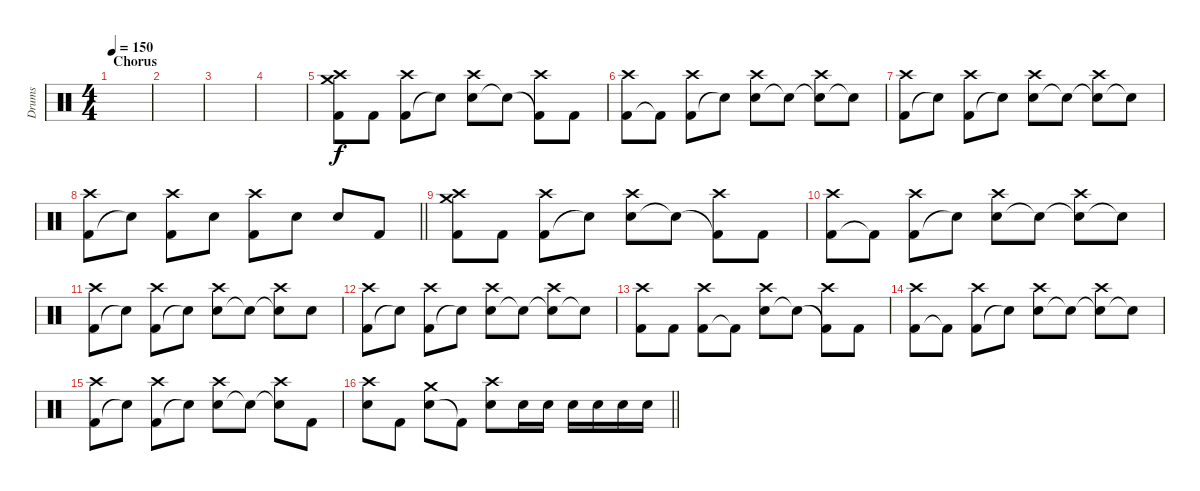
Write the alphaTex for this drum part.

\track ("Drums" "Drums") {instrument percussion}
\staff {score}
\articulation defaults
\ts (4 4)
\section ("" "Chorus")
\tempo 150
\clef neutral
\ks c
|
|
|
|
("Kick (hit) 2" "Crash medium (hit)" "Crash high (hit)").8 "Kick (hit) 2".8 ("Kick (hit) 2" "Crash high (hit)").8 "Snare (hit)"{t}.8 ("Electric Snare (hit)" "Crash high (hit)").8 "Snare (hit)"{t}.8 ("Kick (hit) 2"{t} "Crash high (hit)").8 "Kick (hit) 2".8 |
("Kick (hit) 2" "Crash high (hit)").8 "Kick (hit) 2"{t}.8 ("Kick (hit) 2" "Crash high (hit)").8 "Electric Snare (hit)"{t}.8 ("Electric Snare (hit)" "Crash high (hit)").8 "Snare (hit)"{t}.8 ("Snare (hit)"{t} "Crash high (hit)").8 "Snare (hit)"{t}.8 |
("Kick (hit) 2" "Crash high (hit)").8 "Snare (hit)"{t}.8 ("Kick (hit) 2" "Crash high (hit)").8 "Snare (hit)"{t}.8 ("Electric Snare (hit)" "Crash high (hit)").8 "Snare (hit)"{t}.8 ("Snare (hit)"{t} "Crash high (hit)").8 "Electric Snare (hit)"{t}.8 |
\barLineRight lightlight
("Kick (hit) 2" "Crash high (hit)").8 "Snare (hit)"{t}.8 ("Kick (hit) 2" "Crash high (hit)").8 "Electric Snare (hit)".8 ("Kick (hit) 2" "Crash high (hit)").8 "Electric Snare (hit)".8 "Electric Snare (hit)".8 "Kick (hit) 2".8 |
("Kick (hit) 2" "Crash medium (hit)" "Crash high (hit)").8 "Kick (hit) 2".8 ("Kick (hit) 2" "Crash high (hit)").8 "Snare (hit)"{t}.8 ("Electric Snare (hit)" "Crash high (hit)").8 "Snare (hit)"{t}.8 ("Kick (hit) 2"{t} "Crash high (hit)").8 "Kick (hit) 2".8 |
("Kick (hit) 2" "Crash high (hit)").8 "Kick (hit) 2"{t}.8 ("Kick (hit) 2" "Crash high (hit)").8 "Electric Snare (hit)"{t}.8 ("Electric Snare (hit)" "Crash high (hit)").8 "Snare (hit)"{t}.8 ("Snare (hit)"{t} "Crash high (hit)").8 "Snare (hit)"{t}.8 |
("Kick (hit) 2" "Crash high (hit)").8 "Snare (hit)"{t}.8 ("Kick (hit) 2" "Crash high (hit)").8 "Snare (hit)"{t}.8 ("Electric Snare (hit)" "Crash high (hit)").8 "Snare (hit)"{t}.8 ("Snare (hit)"{t} "Crash high (hit)").8 "Electric Snare (hit)".8 |
("Kick (hit) 2" "Crash high (hit)").8 "Snare (hit)"{t}.8 ("Kick (hit) 2" "Crash high (hit)").8 "Snare (hit)"{t}.8 ("Electric Snare (hit)" "Crash high (hit)").8 "Snare (hit)"{t}.8 ("Snare (hit)"{t} "Crash high (hit)").8 "Snare (hit)"{t}.8 |
("Kick (hit) 2" "Crash high (hit)").8 "Kick (hit) 2".8 ("Kick (hit) 2" "Crash high (hit)").8 "Kick (hit) 2"{t}.8 ("Electric Snare (hit)" "Crash high (hit)").8 "Snare (hit)"{t}.8 ("Kick (hit) 2"{t} "Crash high (hit)").8 "Kick (hit) 2".8 |
("Kick (hit) 2" "Crash high (hit)").8 "Kick (hit) 2"{t}.8 ("Kick (hit) 2" "Crash high (hit)").8 "Electric Snare (hit)"{t}.8 ("Electric Snare (hit)" "Crash high (hit)").8 "Snare (hit)"{t}.8 ("Snare (hit)"{t} "Crash high (hit)").8 "Snare (hit)"{t}.8 |
("Kick (hit) 2" "Crash high (hit)").8 "Snare (hit)"{t}.8 ("Kick (hit) 2" "Crash high (hit)").8 "Snare (hit)"{t}.8 ("Electric Snare (hit)" "Crash high (hit)").8 "Snare (hit)"{t}.8 ("Snare (hit)"{t} "Crash high (hit)").8 "Kick (hit) 2".8 |
\barLineRight lightlight
("Electric Snare (hit)" "Crash high (hit)").8 "Kick (hit) 2".8 ("Electric Snare (hit)" "Crash medium (hit)").8 "Kick (hit) 2"{t}.8 ("Electric Snare (hit)" "Crash high (hit)").8 "Electric Snare (hit)".16 "Electric Snare (hit)".16 "Electric Snare (hit)".16 "Electric Snare (hit)".16 "Electric Snare (hit)".16 "Electric Snare (hit)".16
